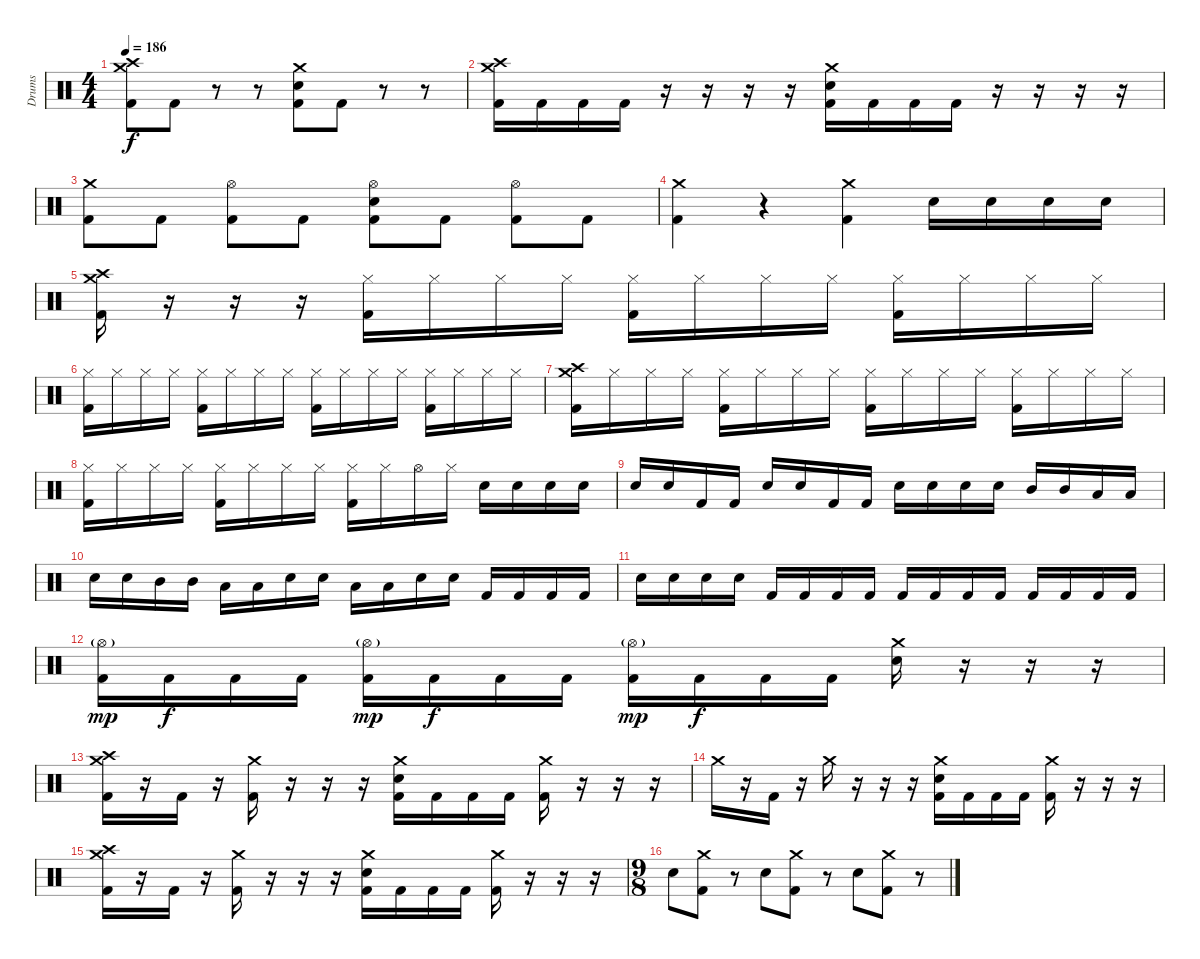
\track ("Drums" "Drums") {instrument percussion}
\staff {score}
\articulation defaults
\ts (4 4)
\tempo 186
\clef neutral
\ks c
("Crash high (hit)" "Crash medium (hit)" "Kick (hit) 2").8{dy f} "Kick (hit) 2".8 r.8 r.8 ("Crash medium (hit)" "Snare (hit) 2" "Kick (hit) 2").8 "Kick (hit) 2".8 r.8 r.8 |
("Crash high (hit)" "Crash medium (hit)" "Kick (hit) 2").16 "Kick (hit) 2".16 "Kick (hit) 2".16 "Kick (hit) 2".16 r.16 r.16 r.16 r.16 ("Crash medium (hit)" "Snare (hit) 2" "Kick (hit) 2").16 "Kick (hit) 2".16 "Kick (hit) 2".16 "Kick (hit) 2".16 r.16 r.16 r.16 r.16 |
("Crash medium (hit)" "Kick (hit) 2").8 "Kick (hit) 2".8 ("Hi-Hat (open)" "Kick (hit) 2").8 "Kick (hit) 2".8 ("Hi-Hat (open)" "Snare (hit) 2" "Kick (hit) 2").8 "Kick (hit) 2".8 ("Hi-Hat (open)" "Kick (hit) 2").8 "Kick (hit) 2".8 |
("Crash medium (hit)" "Kick (hit) 2").4 r.4 ("Crash medium (hit)" "Kick (hit) 2").4 "Snare (hit) 2".16 "Snare (hit) 2".16 "Snare (hit) 2".16 "Snare (hit) 2".16 |
("Crash high (hit)" "Crash medium (hit)" "Kick (hit) 2").16 r.16 r.16 r.16 ("Hi-Hat (closed)" "Kick (hit) 2").16 "Hi-Hat (closed)".16 "Hi-Hat (closed)".16 "Hi-Hat (closed)".16 ("Hi-Hat (closed)" "Kick (hit) 2").16 "Hi-Hat (closed)".16 "Hi-Hat (closed)".16 "Hi-Hat (closed)".16 ("Hi-Hat (closed)" "Kick (hit) 2").16 "Hi-Hat (closed)".16 "Hi-Hat (closed)".16 "Hi-Hat (closed)".16 |
("Hi-Hat (closed)" "Kick (hit) 2").16 "Hi-Hat (closed)".16 "Hi-Hat (closed)".16 "Hi-Hat (closed)".16 ("Hi-Hat (closed)" "Kick (hit) 2").16 "Hi-Hat (closed)".16 "Hi-Hat (closed)".16 "Hi-Hat (closed)".16 ("Hi-Hat (closed)" "Kick (hit) 2").16 "Hi-Hat (closed)".16 "Hi-Hat (closed)".16 "Hi-Hat (closed)".16 ("Hi-Hat (closed)" "Kick (hit) 2").16 "Hi-Hat (closed)".16 "Hi-Hat (closed)".16 "Hi-Hat (closed)".16 |
("Crash high (hit)" "Crash medium (hit)" "Kick (hit) 2").16 "Hi-Hat (closed)".16 "Hi-Hat (closed)".16 "Hi-Hat (closed)".16 ("Hi-Hat (closed)" "Kick (hit) 2").16 "Hi-Hat (closed)".16 "Hi-Hat (closed)".16 "Hi-Hat (closed)".16 ("Hi-Hat (closed)" "Kick (hit) 2").16 "Hi-Hat (closed)".16 "Hi-Hat (closed)".16 "Hi-Hat (closed)".16 ("Hi-Hat (closed)" "Kick (hit) 2").16 "Hi-Hat (closed)".16 "Hi-Hat (closed)".16 "Hi-Hat (closed)".16 |
("Hi-Hat (closed)" "Kick (hit) 2").16 "Hi-Hat (closed)".16 "Hi-Hat (closed)".16 "Hi-Hat (closed)".16 ("Hi-Hat (closed)" "Kick (hit) 2").16 "Hi-Hat (closed)".16 "Hi-Hat (closed)".16 "Hi-Hat (closed)".16 ("Hi-Hat (closed)" "Kick (hit) 2").16 "Hi-Hat (closed)".16 "Hi-Hat (open)".16 "Hi-Hat (closed)".16 "Snare (hit) 2".16 "Snare (hit) 2".16 "Snare (hit) 2".16 "Snare (hit) 2".16 |
"Snare (hit) 2".16 "Snare (hit) 2".16 "Kick (hit) 2".16 "Kick (hit) 2".16 "Snare (hit) 2".16 "Snare (hit) 2".16 "Kick (hit) 2".16 "Kick (hit) 2".16 "Snare (hit) 2".16 "Snare (hit) 2".16 "Snare (hit) 2".16 "Snare (hit) 2".16 "Mid Tom (hit)".16 "Mid Tom (hit)".16 "Low Tom (hit)".16 "Low Tom (hit)".16 |
"Snare (hit) 2".16 "Snare (hit) 2".16 "Mid Tom (hit)".16 "Mid Tom (hit)".16 "Low Tom (hit)".16 "Low Tom (hit)".16 "Snare (hit) 2".16 "Snare (hit) 2".16 "Low Tom (hit)".16 "Low Tom (hit)".16 "Snare (hit) 2".16 "Snare (hit) 2".16 "Kick (hit) 2".16 "Kick (hit) 2".16 "Kick (hit) 2".16 "Kick (hit) 2".16 |
"Snare (hit) 2".16 "Snare (hit) 2".16 "Snare (hit) 2".16 "Snare (hit) 2".16 "Kick (hit) 2".16 "Kick (hit) 2".16 "Kick (hit) 2".16 "Kick (hit) 2".16 "Kick (hit) 2".16 "Kick (hit) 2".16 "Kick (hit) 2".16 "Kick (hit) 2".16 "Kick (hit) 2".16 "Kick (hit) 2".16 "Kick (hit) 2".16 "Kick (hit) 2".16 |
("Hi-Hat (open)"{g} "Kick (hit) 2").16{dy mp} "Kick (hit) 2".16{dy f} "Kick (hit) 2".16 "Kick (hit) 2".16 ("Hi-Hat (open)"{g} "Kick (hit) 2").16{dy mp} "Kick (hit) 2".16{dy f} "Kick (hit) 2".16 "Kick (hit) 2".16 ("Hi-Hat (open)"{g} "Kick (hit) 2").16{dy mp} "Kick (hit) 2".16{dy f} "Kick (hit) 2".16 "Kick (hit) 2".16 ("Crash medium (hit)" "Snare (hit) 2").16 r.16 r.16 r.16 |
("Crash high (hit)" "Crash medium (hit)" "Kick (hit) 2").16 r.16 "Kick (hit) 2".16 r.16 ("Crash medium (hit)" "Kick (hit) 2").16 r.16 r.16 r.16 ("Crash medium (hit)" "Snare (hit) 2" "Kick (hit) 2").16 "Kick (hit) 2".16 "Kick (hit) 2".16 "Kick (hit) 2".16 ("Crash medium (hit)" "Kick (hit) 2").16 r.16 r.16 r.16 |
"Crash medium (hit)".16 r.16 "Kick (hit) 2".16 r.16 "Crash medium (hit)".16 r.16 r.16 r.16 ("Crash medium (hit)" "Snare (hit) 2" "Kick (hit) 2").16 "Kick (hit) 2".16 "Kick (hit) 2".16 "Kick (hit) 2".16 ("Crash medium (hit)" "Kick (hit) 2").16 r.16 r.16 r.16 |
("Crash high (hit)" "Crash medium (hit)" "Kick (hit) 2").16 r.16 "Kick (hit) 2".16 r.16 ("Crash medium (hit)" "Kick (hit) 2").16 r.16 r.16 r.16 ("Crash medium (hit)" "Snare (hit) 2" "Kick (hit) 2").16 "Kick (hit) 2".16 "Kick (hit) 2".16 "Kick (hit) 2".16 ("Crash medium (hit)" "Kick (hit) 2").16 r.16 r.16 r.16 |
\ts (9 8)
"Snare (hit) 2".8 ("Crash medium (hit)" "Kick (hit) 2").8 r.8 "Snare (hit) 2".8 ("Crash medium (hit)" "Kick (hit) 2").8 r.8 "Snare (hit) 2".8 ("Crash medium (hit)" "Kick (hit) 2").8 r.8
